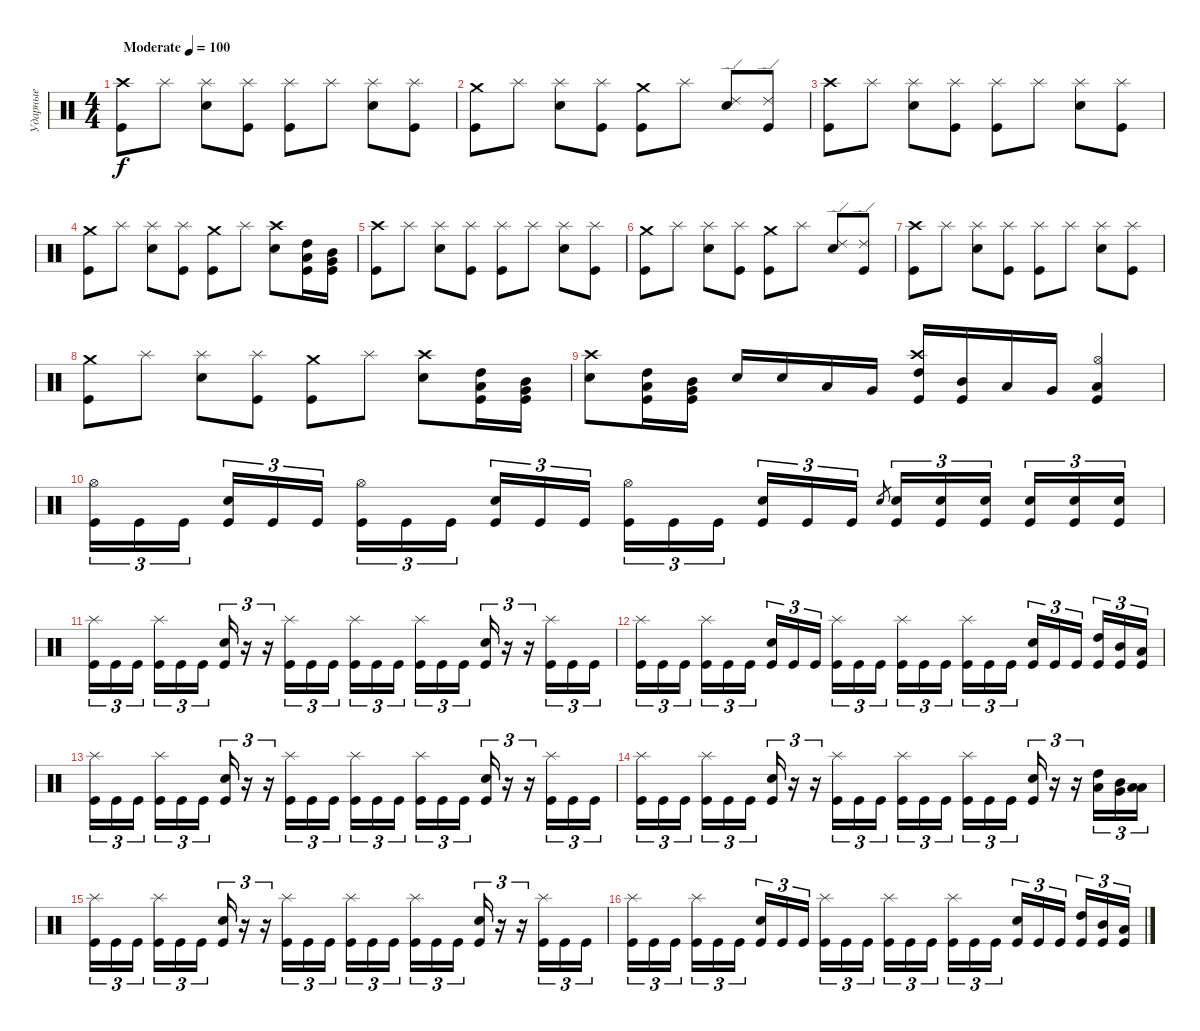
\track ("Ударные" "Ударные") {instrument percussion}
\staff {score}
\articulation defaults
\ts (4 4)
\tempo (100 "Moderate")
\clef neutral
\ks c
("Kick (hit)" "Crash high (hit)").8{dy f} "Splash (hit)".8 ("Electric Snare (hit)" "Splash (hit)").8 ("Kick (hit)" "Splash (hit)").8 ("Kick (hit)" "Splash (hit)").8 "Splash (hit)".8 ("Electric Snare (hit)" "Splash (hit)").8 ("Kick (hit)" "Splash (hit)").8 |
("Kick (hit)" "Crash medium (hit)").8 "Splash (hit)".8 ("Electric Snare (hit)" "Splash (hit)").8 ("Kick (hit)" "Splash (hit)").8 ("Kick (hit)" "Crash medium (hit)").8 "Splash (hit)".8 ("Electric Snare (hit)" "Ride (edge) 2").8 ("Kick (hit)" "Ride (edge) 2").8 |
("Kick (hit)" "Crash high (hit)").8 "Splash (hit)".8 ("Electric Snare (hit)" "Splash (hit)").8 ("Kick (hit)" "Splash (hit)").8 ("Kick (hit)" "Splash (hit)").8 "Splash (hit)".8 ("Electric Snare (hit)" "Splash (hit)").8 ("Kick (hit)" "Splash (hit)").8 |
("Kick (hit)" "Crash medium (hit)").8 "Splash (hit)".8 ("Electric Snare (hit)" "Splash (hit)").8 ("Kick (hit)" "Splash (hit)").8 ("Kick (hit)" "Crash medium (hit)").8 "Splash (hit)".8 ("Electric Snare (hit)" "Crash high (hit)").8 ("Kick (hit)" "High Tom (hit)" "Low Tom (hit)").16 ("Kick (hit)" "Mid Tom (hit)" "Very Low Tom (hit)").16 |
("Kick (hit)" "Crash high (hit)").8 "Splash (hit)".8 ("Electric Snare (hit)" "Splash (hit)").8 ("Kick (hit)" "Splash (hit)").8 ("Kick (hit)" "Splash (hit)").8 "Splash (hit)".8 ("Electric Snare (hit)" "Splash (hit)").8 ("Kick (hit)" "Splash (hit)").8 |
("Kick (hit)" "Crash medium (hit)").8 "Splash (hit)".8 ("Electric Snare (hit)" "Splash (hit)").8 ("Kick (hit)" "Splash (hit)").8 ("Kick (hit)" "Crash medium (hit)").8 "Splash (hit)".8 ("Electric Snare (hit)" "Ride (edge) 2").8 ("Kick (hit)" "Ride (edge) 2").8 |
("Kick (hit)" "Crash high (hit)").8 "Splash (hit)".8 ("Electric Snare (hit)" "Splash (hit)").8 ("Kick (hit)" "Splash (hit)").8 ("Kick (hit)" "Splash (hit)").8 "Splash (hit)".8 ("Electric Snare (hit)" "Splash (hit)").8 ("Kick (hit)" "Splash (hit)").8 |
("Kick (hit)" "Crash medium (hit)").8 "Splash (hit)".8 ("Electric Snare (hit)" "Splash (hit)").8 ("Kick (hit)" "Splash (hit)").8 ("Kick (hit)" "Crash medium (hit)").8 "Splash (hit)".8 ("Electric Snare (hit)" "Crash high (hit)").8 ("Kick (hit)" "High Tom (hit)" "Low Tom (hit)").16 ("Kick (hit)" "Mid Tom (hit)" "Very Low Tom (hit)").16 |
("Electric Snare (hit)" "Crash high (hit)").8 ("Kick (hit)" "High Tom (hit)" "Low Tom (hit)").16 ("Kick (hit)" "Mid Tom (hit)" "Very Low Tom (hit)").16 "Electric Snare (hit)".16 "Electric Snare (hit)".16 "Low Tom (hit)".16 "Very Low Tom (hit)".16 ("Kick (hit)" "Crash high (hit)" "High Tom (hit)").16 ("Kick (hit)" "Mid Tom (hit)").16 "Low Tom (hit)".16 "Very Low Tom (hit)".16 ("Hi-Hat (open)" "Kick (hit)" "Low Floor Tom (hit)").4 |
("Hi-Hat (open)" "Kick (hit)").16{tu (3 2)} "Kick (hit)".16{tu (3 2)} "Kick (hit)".16{tu (3 2) beam splitsecondary} ("Electric Snare (hit)" "Kick (hit)").16{tu (3 2)} "Kick (hit)".16{tu (3 2)} "Kick (hit)".16{tu (3 2)} ("Hi-Hat (open)" "Kick (hit)").16{tu (3 2)} "Kick (hit)".16{tu (3 2)} "Kick (hit)".16{tu (3 2) beam splitsecondary} ("Electric Snare (hit)" "Kick (hit)").16{tu (3 2)} "Kick (hit)".16{tu (3 2)} "Kick (hit)".16{tu (3 2)} ("Hi-Hat (open)" "Kick (hit)").16{tu (3 2)} "Kick (hit)".16{tu (3 2)} "Kick (hit)".16{tu (3 2) beam splitsecondary} ("Electric Snare (hit)" "Kick (hit)").16{tu (3 2)} "Kick (hit)".16{tu (3 2)} "Kick (hit)".16{tu (3 2)} "Electric Snare (hit)".8{gr} ("Electric Snare (hit)" "Kick (hit)").16{tu (3 2)} ("Electric Snare (hit)" "Kick (hit)").16{tu (3 2)} ("Electric Snare (hit)" "Kick (hit)").16{tu (3 2) beam splitsecondary} ("Electric Snare (hit)" "Kick (hit)").16{tu (3 2)} ("Electric Snare (hit)" "Kick (hit)").16{tu (3 2)} ("Electric Snare (hit)" "Kick (hit)").16{tu (3 2)} |
("Splash (hit)" "Kick (hit)").16{tu (3 2)} "Kick (hit)".16{tu (3 2)} "Kick (hit)".16{tu (3 2) beam splitsecondary} ("Splash (hit)" "Kick (hit)").16{tu (3 2)} "Kick (hit)".16{tu (3 2)} "Kick (hit)".16{tu (3 2)} ("Electric Snare (hit)" "Kick (hit)").16{tu (3 2)} r.16{tu (3 2)} r.16{tu (3 2)} ("Splash (hit)" "Kick (hit)").16{tu (3 2)} "Kick (hit)".16{tu (3 2)} "Kick (hit)".16{tu (3 2)} ("Splash (hit)" "Kick (hit)").16{tu (3 2)} "Kick (hit)".16{tu (3 2)} "Kick (hit)".16{tu (3 2) beam splitsecondary} ("Splash (hit)" "Kick (hit)").16{tu (3 2)} "Kick (hit)".16{tu (3 2)} "Kick (hit)".16{tu (3 2)} ("Electric Snare (hit)" "Kick (hit)").16{tu (3 2)} r.16{tu (3 2)} r.16{tu (3 2)} ("Splash (hit)" "Kick (hit)").16{tu (3 2)} "Kick (hit)".16{tu (3 2)} "Kick (hit)".16{tu (3 2)} |
("Splash (hit)" "Kick (hit)").16{tu (3 2)} "Kick (hit)".16{tu (3 2)} "Kick (hit)".16{tu (3 2) beam splitsecondary} ("Splash (hit)" "Kick (hit)").16{tu (3 2)} "Kick (hit)".16{tu (3 2)} "Kick (hit)".16{tu (3 2)} ("Electric Snare (hit)" "Kick (hit)").16{tu (3 2)} "Kick (hit)".16{tu (3 2)} "Kick (hit)".16{tu (3 2) beam splitsecondary} ("Splash (hit)" "Kick (hit)").16{tu (3 2)} "Kick (hit)".16{tu (3 2)} "Kick (hit)".16{tu (3 2)} ("Splash (hit)" "Kick (hit)").16{tu (3 2)} "Kick (hit)".16{tu (3 2)} "Kick (hit)".16{tu (3 2) beam splitsecondary} ("Splash (hit)" "Kick (hit)").16{tu (3 2)} "Kick (hit)".16{tu (3 2)} "Kick (hit)".16{tu (3 2)} ("Electric Snare (hit)" "Kick (hit)").16{tu (3 2)} "Kick (hit)".16{tu (3 2)} "Kick (hit)".16{tu (3 2) beam splitsecondary} ("High Tom (hit)" "Kick (hit)").16{tu (3 2)} ("Mid Tom (hit)" "Kick (hit)").16{tu (3 2)} ("Low Tom (hit)" "Kick (hit)").16{tu (3 2)} |
("Splash (hit)" "Kick (hit)").16{tu (3 2)} "Kick (hit)".16{tu (3 2)} "Kick (hit)".16{tu (3 2) beam splitsecondary} ("Splash (hit)" "Kick (hit)").16{tu (3 2)} "Kick (hit)".16{tu (3 2)} "Kick (hit)".16{tu (3 2)} ("Electric Snare (hit)" "Kick (hit)").16{tu (3 2)} r.16{tu (3 2)} r.16{tu (3 2)} ("Splash (hit)" "Kick (hit)").16{tu (3 2)} "Kick (hit)".16{tu (3 2)} "Kick (hit)".16{tu (3 2)} ("Splash (hit)" "Kick (hit)").16{tu (3 2)} "Kick (hit)".16{tu (3 2)} "Kick (hit)".16{tu (3 2) beam splitsecondary} ("Splash (hit)" "Kick (hit)").16{tu (3 2)} "Kick (hit)".16{tu (3 2)} "Kick (hit)".16{tu (3 2)} ("Electric Snare (hit)" "Kick (hit)").16{tu (3 2)} r.16{tu (3 2)} r.16{tu (3 2)} ("Splash (hit)" "Kick (hit)").16{tu (3 2)} "Kick (hit)".16{tu (3 2)} "Kick (hit)".16{tu (3 2)} |
("Splash (hit)" "Kick (hit)").16{tu (3 2)} "Kick (hit)".16{tu (3 2)} "Kick (hit)".16{tu (3 2) beam splitsecondary} ("Splash (hit)" "Kick (hit)").16{tu (3 2)} "Kick (hit)".16{tu (3 2)} "Kick (hit)".16{tu (3 2)} ("Electric Snare (hit)" "Kick (hit)").16{tu (3 2)} r.16{tu (3 2)} r.16{tu (3 2)} ("Splash (hit)" "Kick (hit)").16{tu (3 2)} "Kick (hit)".16{tu (3 2)} "Kick (hit)".16{tu (3 2)} ("Splash (hit)" "Kick (hit)").16{tu (3 2)} "Kick (hit)".16{tu (3 2)} "Kick (hit)".16{tu (3 2) beam splitsecondary} ("Splash (hit)" "Kick (hit)").16{tu (3 2)} "Kick (hit)".16{tu (3 2)} "Kick (hit)".16{tu (3 2)} ("Electric Snare (hit)" "Kick (hit)").16{tu (3 2)} r.16{tu (3 2)} r.16{tu (3 2)} ("High Tom (hit)" "Low Tom (hit)").16{tu (3 2)} ("Mid Tom (hit)" "Very Low Tom (hit)").16{tu (3 2)} ("Low Tom (hit)" "Low Floor Tom (hit)").16{tu (3 2)} |
("Splash (hit)" "Kick (hit)").16{tu (3 2)} "Kick (hit)".16{tu (3 2)} "Kick (hit)".16{tu (3 2) beam splitsecondary} ("Splash (hit)" "Kick (hit)").16{tu (3 2)} "Kick (hit)".16{tu (3 2)} "Kick (hit)".16{tu (3 2)} ("Electric Snare (hit)" "Kick (hit)").16{tu (3 2)} r.16{tu (3 2)} r.16{tu (3 2)} ("Splash (hit)" "Kick (hit)").16{tu (3 2)} "Kick (hit)".16{tu (3 2)} "Kick (hit)".16{tu (3 2)} ("Splash (hit)" "Kick (hit)").16{tu (3 2)} "Kick (hit)".16{tu (3 2)} "Kick (hit)".16{tu (3 2) beam splitsecondary} ("Splash (hit)" "Kick (hit)").16{tu (3 2)} "Kick (hit)".16{tu (3 2)} "Kick (hit)".16{tu (3 2)} ("Electric Snare (hit)" "Kick (hit)").16{tu (3 2)} r.16{tu (3 2)} r.16{tu (3 2)} ("Splash (hit)" "Kick (hit)").16{tu (3 2)} "Kick (hit)".16{tu (3 2)} "Kick (hit)".16{tu (3 2)} |
("Splash (hit)" "Kick (hit)").16{tu (3 2)} "Kick (hit)".16{tu (3 2)} "Kick (hit)".16{tu (3 2) beam splitsecondary} ("Splash (hit)" "Kick (hit)").16{tu (3 2)} "Kick (hit)".16{tu (3 2)} "Kick (hit)".16{tu (3 2)} ("Electric Snare (hit)" "Kick (hit)").16{tu (3 2)} "Kick (hit)".16{tu (3 2)} "Kick (hit)".16{tu (3 2) beam splitsecondary} ("Splash (hit)" "Kick (hit)").16{tu (3 2)} "Kick (hit)".16{tu (3 2)} "Kick (hit)".16{tu (3 2)} ("Splash (hit)" "Kick (hit)").16{tu (3 2)} "Kick (hit)".16{tu (3 2)} "Kick (hit)".16{tu (3 2) beam splitsecondary} ("Splash (hit)" "Kick (hit)").16{tu (3 2)} "Kick (hit)".16{tu (3 2)} "Kick (hit)".16{tu (3 2)} ("Electric Snare (hit)" "Kick (hit)").16{tu (3 2)} "Kick (hit)".16{tu (3 2)} "Kick (hit)".16{tu (3 2) beam splitsecondary} ("High Tom (hit)" "Kick (hit)").16{tu (3 2)} ("Mid Tom (hit)" "Kick (hit)").16{tu (3 2)} ("Low Tom (hit)" "Kick (hit)").16{tu (3 2)}
